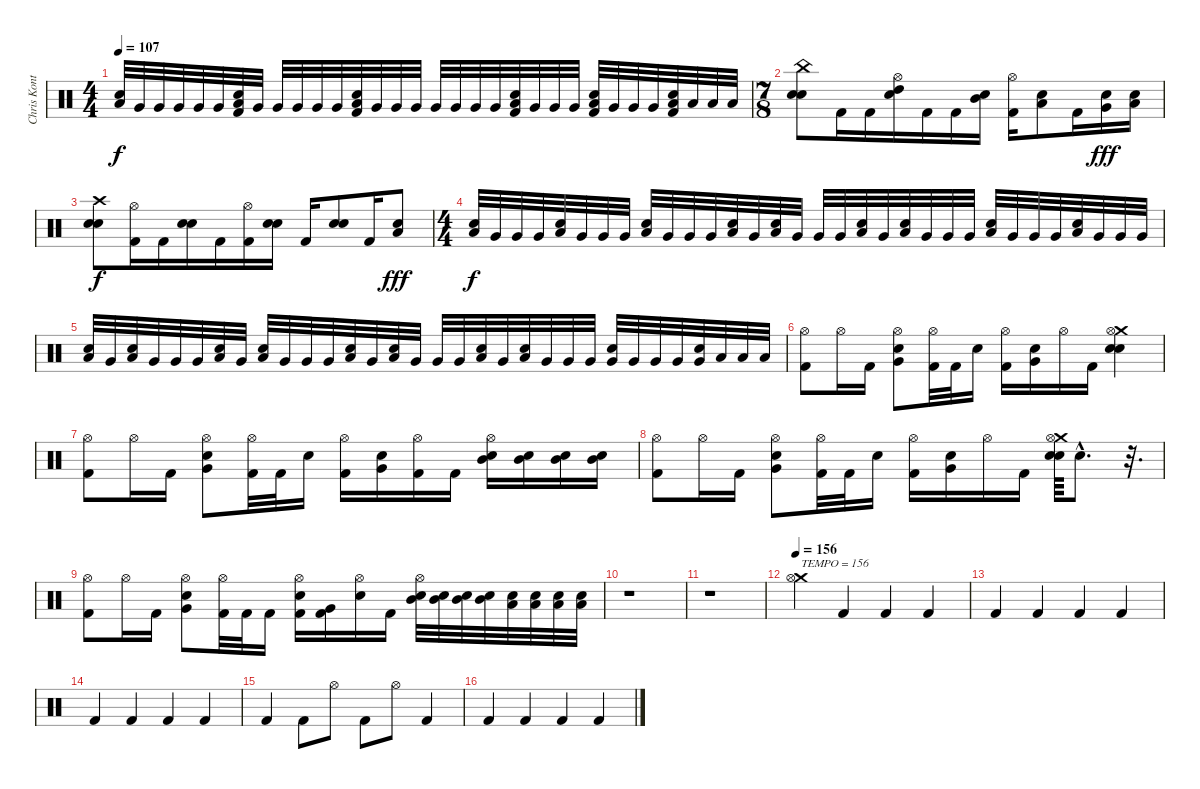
\track ("Chris Kontos" "Chris Kont") {instrument percussion}
\staff {score}
\articulation defaults
\ts (4 4)
\tempo 107
\clef neutral
\ks c
("Low Floor Tom (hit)" "Snare (hit) 2").32{dy f} "Very Low Tom (hit)".32 "Very Low Tom (hit)".32 "Very Low Tom (hit)".32 "Very Low Tom (hit)".32 "Very Low Tom (hit)".32 ("Low Floor Tom (hit)" "Snare (hit) 2" "Kick (hit) 2").32 "Very Low Tom (hit)".32 "Very Low Tom (hit)".32 "Very Low Tom (hit)".32 "Very Low Tom (hit)".32 "Very Low Tom (hit)".32 ("Low Floor Tom (hit)" "Snare (hit) 2" "Kick (hit) 2").32 "Very Low Tom (hit)".32 "Very Low Tom (hit)".32 "Very Low Tom (hit)".32 "Very Low Tom (hit)".32 "Very Low Tom (hit)".32 "Very Low Tom (hit)".32 "Very Low Tom (hit)".32 ("Low Floor Tom (hit)" "Snare (hit) 2" "Kick (hit) 2").32 "Very Low Tom (hit)".32 "Very Low Tom (hit)".32 "Very Low Tom (hit)".32 ("Low Floor Tom (hit)" "Snare (hit) 2" "Kick (hit) 2").32 "Very Low Tom (hit)".32 "Very Low Tom (hit)".32 "Very Low Tom (hit)".32 ("Low Floor Tom (hit)" "Snare (hit) 2" "Kick (hit) 2").32 "Low Floor Tom (hit)".32 "Low Floor Tom (hit)".32 "Low Floor Tom (hit)".32 |
\ts (7 8)
("China (hit)" "Snare (hit) 2" "Electric Snare (hit)").8 "Kick (hit) 2".16 "Kick (hit) 2".16 ("High Tom (hit)" "Hi-Hat (open)" "Electric Snare (hit)").16 "Kick (hit) 2".16 "Kick (hit) 2".16 ("Mid Tom (hit)" "Snare (hit) 2").16 ("Hi-Hat (open)" "Kick (hit) 2").16 ("Low Tom (hit)" "Electric Snare (hit)").8 "Kick (hit) 2".16 ("Very Low Tom (hit)" "Snare (hit) 2").16{dy fff} ("Low Floor Tom (hit)" "Snare (hit) 2").16 |
("Crash high (hit)" "Snare (hit) 2" "Electric Snare (hit)").8{dy f} ("Hi-Hat (open)" "Kick (hit) 2").16 "Kick (hit) 2".16 ("Snare (hit) 2" "Electric Snare (hit)").16 "Kick (hit) 2".16 ("Hi-Hat (open)" "Kick (hit) 2").16 ("Snare (hit) 2" "Snare (hit) 2").16 "Kick (hit) 2".16 ("Snare (hit) 2" "Electric Snare (hit)").8 "Kick (hit) 2".16 ("Low Floor Tom (hit)" "Snare (hit) 2").8{dy fff} |
\ts (4 4)
("Low Tom (hit)" "Snare (hit) 2").32{dy f} "Very Low Tom (hit)".32 "Very Low Tom (hit)".32 "Very Low Tom (hit)".32 ("Low Tom (hit)" "Snare (hit) 2").32 "Very Low Tom (hit)".32 "Very Low Tom (hit)".32 "Very Low Tom (hit)".32 ("Low Tom (hit)" "Snare (hit) 2").32 "Very Low Tom (hit)".32 "Very Low Tom (hit)".32 "Very Low Tom (hit)".32 ("Low Tom (hit)" "Snare (hit) 2").32 "Very Low Tom (hit)".32 ("Low Tom (hit)" "Snare (hit) 2").32 "Very Low Tom (hit)".32 "Very Low Tom (hit)".32 "Very Low Tom (hit)".32 ("Low Tom (hit)" "Snare (hit) 2").32 "Very Low Tom (hit)".32 ("Low Tom (hit)" "Snare (hit) 2").32 "Very Low Tom (hit)".32 "Very Low Tom (hit)".32 "Very Low Tom (hit)".32 ("Low Tom (hit)" "Snare (hit) 2").32 "Very Low Tom (hit)".32 "Very Low Tom (hit)".32 "Very Low Tom (hit)".32 ("Low Tom (hit)" "Snare (hit) 2").32 "Very Low Tom (hit)".32 "Very Low Tom (hit)".32 "Very Low Tom (hit)".32 |
("Low Tom (hit)" "Snare (hit) 2").32 "Very Low Tom (hit)".32 ("Low Tom (hit)" "Snare (hit) 2").32 "Very Low Tom (hit)".32 "Very Low Tom (hit)".32 "Very Low Tom (hit)".32 ("Low Tom (hit)" "Snare (hit) 2").32 "Very Low Tom (hit)".32 ("Low Tom (hit)" "Snare (hit) 2").32 "Very Low Tom (hit)".32 "Very Low Tom (hit)".32 "Very Low Tom (hit)".32 ("Low Tom (hit)" "Snare (hit) 2").32 "Very Low Tom (hit)".32 ("Low Tom (hit)" "Snare (hit) 2").32 "Very Low Tom (hit)".32 "Very Low Tom (hit)".32 "Very Low Tom (hit)".32 ("Low Tom (hit)" "Snare (hit) 2").32 "Very Low Tom (hit)".32 ("Low Tom (hit)" "Snare (hit) 2").32 "Very Low Tom (hit)".32 "Very Low Tom (hit)".32 "Very Low Tom (hit)".32 ("Very Low Tom (hit)" "Snare (hit) 2").32 "Very Low Tom (hit)".32 "Very Low Tom (hit)".32 "Very Low Tom (hit)".32 ("Very Low Tom (hit)" "Snare (hit) 2").32 "Low Floor Tom (hit)".32 "Low Floor Tom (hit)".32 "Low Floor Tom (hit)".32 |
("Hi-Hat (open)" "Kick (hit) 2").8 "Hi-Hat (open)".16 "Kick (hit) 2".16 ("Very Low Tom (hit)" "Hi-Hat (open)" "Electric Snare (hit)").8 ("Hi-Hat (open)" "Kick (hit) 2").32 "Kick (hit) 2".32 "Electric Snare (hit)".16 ("Hi-Hat (open)" "Kick (hit) 2").16 ("Very Low Tom (hit)" "Electric Snare (hit)").16 "Hi-Hat (open)".16 "Kick (hit) 2".16 ("Snare (hit) 2" "Crash medium (hit)" "Hi-Hat (open)" "Electric Snare (hit)").4 |
("Hi-Hat (open)" "Kick (hit) 2").8 "Hi-Hat (open)".16 "Kick (hit) 2".16 ("Very Low Tom (hit)" "Hi-Hat (open)" "Electric Snare (hit)").8 ("Hi-Hat (open)" "Kick (hit) 2").32 "Kick (hit) 2".32 "Electric Snare (hit)".16 ("Hi-Hat (open)" "Kick (hit) 2").16 ("Very Low Tom (hit)" "Electric Snare (hit)").16 ("Hi-Hat (open)" "Kick (hit) 2").16 "Kick (hit) 2".16 ("Mid Tom (hit)" "Hi-Hat (open)" "Electric Snare (hit)").16 ("Mid Tom (hit)" "Electric Snare (hit)").16 ("Mid Tom (hit)" "Electric Snare (hit)").16 ("Mid Tom (hit)" "Electric Snare (hit)").16 |
("Hi-Hat (open)" "Kick (hit) 2").8 "Hi-Hat (open)".16 "Kick (hit) 2".16 ("Very Low Tom (hit)" "Hi-Hat (open)" "Electric Snare (hit)").8 ("Hi-Hat (open)" "Kick (hit) 2").32 "Kick (hit) 2".32 "Electric Snare (hit)".16 ("Hi-Hat (open)" "Kick (hit) 2").16 ("Very Low Tom (hit)" "Electric Snare (hit)").16 "Hi-Hat (open)".16 "Kick (hit) 2".16 ("Snare (hit) 2" "Crash medium (hit)" "Hi-Hat (open)" "Electric Snare (hit)").64 "Snare (hit) 2"{hac}.8{d} r.32{d} |
("Hi-Hat (open)" "Kick (hit) 2").8 "Hi-Hat (open)".16 "Kick (hit) 2".16 ("Very Low Tom (hit)" "Hi-Hat (open)" "Electric Snare (hit)").8 ("Hi-Hat (open)" "Kick (hit) 2").32 "Kick (hit) 2".32 "Kick (hit) 2".16 ("Hi-Hat (open)" "Electric Snare (hit)" "Kick (hit) 2").16 ("Very Low Tom (hit)" "Kick (hit) 2").16 ("Hi-Hat (open)" "Electric Snare (hit)").16 "Kick (hit) 2".16 ("Mid Tom (hit)" "Hi-Hat (open)" "Electric Snare (hit)").32 ("Mid Tom (hit)" "Electric Snare (hit)").32 ("Mid Tom (hit)" "Electric Snare (hit)").32 ("Mid Tom (hit)" "Electric Snare (hit)").32 ("Low Tom (hit)" "Electric Snare (hit)").32 ("Low Tom (hit)" "Electric Snare (hit)").32 ("Low Tom (hit)" "Electric Snare (hit)").32 ("Low Tom (hit)" "Electric Snare (hit)").32 |
r.1 |
r.1 |
\tempo 156
("Crash medium (hit)" "Hi-Hat (open)").4{txt "TEMPO = 156"} "Kick (hit) 2".4 "Kick (hit) 2".4 "Kick (hit) 2".4 |
"Kick (hit) 2".4 "Kick (hit) 2".4 "Kick (hit) 2".4 "Kick (hit) 2".4 |
"Kick (hit) 2".4 "Kick (hit) 2".4 "Kick (hit) 2".4 "Kick (hit) 2".4 |
"Kick (hit) 2".4 "Kick (hit) 2".8 "Hi-Hat (open)".8 "Kick (hit) 2".8 "Hi-Hat (open)".8 "Kick (hit) 2".4 |
"Kick (hit) 2".4 "Kick (hit) 2".4 "Kick (hit) 2".4 "Kick (hit) 2".4
